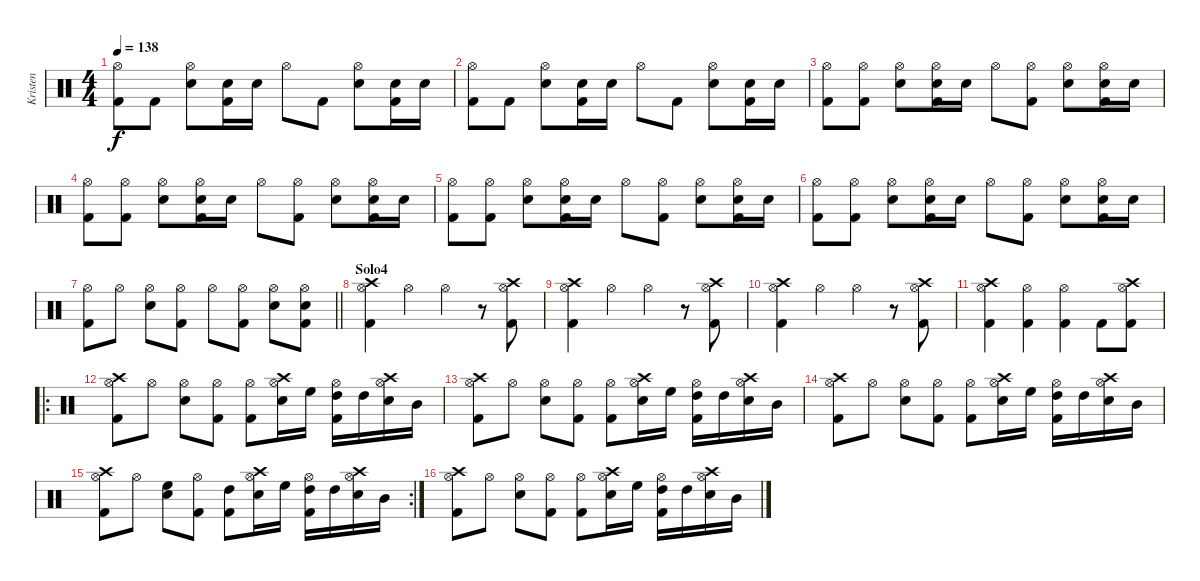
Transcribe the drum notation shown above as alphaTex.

\track ("Kristen" "Kristen") {instrument percussion}
\staff {score}
\articulation defaults
\ts (4 4)
\tempo 138
\clef neutral
\ks c
("Hi-Hat (open)" "Kick (hit) 2").8{dy f} "Kick (hit) 2".8 ("Hi-Hat (open)" "Snare (hit) 2").8 ("Snare (hit) 2" "Kick (hit) 2").16 "Snare (hit) 2".16 "Hi-Hat (open)".8 "Kick (hit) 2".8 ("Hi-Hat (open)" "Snare (hit) 2").8 ("Snare (hit) 2" "Kick (hit) 2").16 "Snare (hit) 2".16 |
("Hi-Hat (open)" "Kick (hit) 2").8 "Kick (hit) 2".8 ("Hi-Hat (open)" "Snare (hit) 2").8 ("Snare (hit) 2" "Kick (hit) 2").16 "Snare (hit) 2".16 "Hi-Hat (open)".8 "Kick (hit) 2".8 ("Hi-Hat (open)" "Snare (hit) 2").8 ("Snare (hit) 2" "Kick (hit) 2").16 "Snare (hit) 2".16 |
("Hi-Hat (open)" "Kick (hit) 2").8 ("Hi-Hat (open)" "Kick (hit) 2").8 ("Hi-Hat (open)" "Snare (hit) 2").8 ("Hi-Hat (open)" "Snare (hit) 2" "Kick (hit) 2").16 "Snare (hit) 2".16 "Hi-Hat (open)".8 ("Hi-Hat (open)" "Kick (hit) 2").8 ("Hi-Hat (open)" "Snare (hit) 2").8 ("Hi-Hat (open)" "Snare (hit) 2" "Kick (hit) 2").16 "Snare (hit) 2".16 |
("Hi-Hat (open)" "Kick (hit) 2").8 ("Hi-Hat (open)" "Kick (hit) 2").8 ("Hi-Hat (open)" "Snare (hit) 2").8 ("Hi-Hat (open)" "Snare (hit) 2" "Kick (hit) 2").16 "Snare (hit) 2".16 "Hi-Hat (open)".8 ("Hi-Hat (open)" "Kick (hit) 2").8 ("Hi-Hat (open)" "Snare (hit) 2").8 ("Hi-Hat (open)" "Snare (hit) 2" "Kick (hit) 2").16 "Snare (hit) 2".16 |
("Hi-Hat (open)" "Kick (hit) 2").8 ("Hi-Hat (open)" "Kick (hit) 2").8 ("Hi-Hat (open)" "Snare (hit) 2").8 ("Hi-Hat (open)" "Snare (hit) 2" "Kick (hit) 2").16 "Snare (hit) 2".16 "Hi-Hat (open)".8 ("Hi-Hat (open)" "Kick (hit) 2").8 ("Hi-Hat (open)" "Snare (hit) 2").8 ("Hi-Hat (open)" "Snare (hit) 2" "Kick (hit) 2").16 "Snare (hit) 2".16 |
("Hi-Hat (open)" "Kick (hit) 2").8 ("Hi-Hat (open)" "Kick (hit) 2").8 ("Hi-Hat (open)" "Snare (hit) 2").8 ("Hi-Hat (open)" "Snare (hit) 2" "Kick (hit) 2").16 "Snare (hit) 2".16 "Hi-Hat (open)".8 ("Hi-Hat (open)" "Kick (hit) 2").8 ("Hi-Hat (open)" "Snare (hit) 2").8 ("Hi-Hat (open)" "Snare (hit) 2" "Kick (hit) 2").16 "Snare (hit) 2".16 |
\barLineRight lightlight
("Hi-Hat (open)" "Kick (hit) 2").8 "Hi-Hat (open)".8 ("Hi-Hat (open)" "Snare (hit) 2").8 ("Hi-Hat (open)" "Kick (hit) 2").8 "Hi-Hat (open)".8 ("Hi-Hat (open)" "Kick (hit) 2").8 ("Hi-Hat (open)" "Snare (hit) 2").8 ("Hi-Hat (open)" "Snare (hit) 2" "Kick (hit) 2").8 |
\section ("" "Solo4")
("Crash high (hit)" "Hi-Hat (open)" "Kick (hit) 2").4 "Hi-Hat (open)".4 "Hi-Hat (open)".4 r.8 ("Crash high (hit)" "Hi-Hat (open)" "Kick (hit) 2").8 |
("Crash high (hit)" "Hi-Hat (open)" "Kick (hit) 2").4 "Hi-Hat (open)".4 "Hi-Hat (open)".4 r.8 ("Crash high (hit)" "Hi-Hat (open)" "Kick (hit) 2").8 |
("Crash high (hit)" "Hi-Hat (open)" "Kick (hit) 2").4 "Hi-Hat (open)".4 "Hi-Hat (open)".4 r.8 ("Crash high (hit)" "Hi-Hat (open)" "Kick (hit) 2").8 |
("Crash high (hit)" "Hi-Hat (open)" "Kick (hit) 2").4 ("Hi-Hat (open)" "Kick (hit) 2").4 ("Hi-Hat (open)" "Kick (hit) 2").4 "Kick (hit) 2".8 ("Crash high (hit)" "Hi-Hat (open)" "Kick (hit) 2").8 |
\ro
("Crash high (hit)" "Hi-Hat (open)" "Kick (hit) 2").8 "Hi-Hat (open)".8 ("Hi-Hat (open)" "Snare (hit) 2").8 ("Hi-Hat (open)" "Kick (hit) 2").8 ("Hi-Hat (open)" "Kick (hit) 2").8 ("Crash high (hit)" "Hi-Hat (open)" "Snare (hit) 2").16 "High Floor Tom (hit)".16 ("High Tom (hit)" "Hi-Hat (open)" "Kick (hit) 2").16 "High Tom (hit)".16 ("Crash high (hit)" "Hi-Hat (open)" "Snare (hit) 2").16 "Mid Tom (hit)".16 |
("Crash high (hit)" "Hi-Hat (open)" "Kick (hit) 2").8 "Hi-Hat (open)".8 ("Hi-Hat (open)" "Snare (hit) 2").8 ("Hi-Hat (open)" "Kick (hit) 2").8 ("Hi-Hat (open)" "Kick (hit) 2").8 ("Crash high (hit)" "Hi-Hat (open)" "Snare (hit) 2").16 "High Floor Tom (hit)".16 ("High Tom (hit)" "Hi-Hat (open)" "Kick (hit) 2").16 "High Tom (hit)".16 ("Crash high (hit)" "Hi-Hat (open)" "Snare (hit) 2").16 "Mid Tom (hit)".16 |
("Crash high (hit)" "Hi-Hat (open)" "Kick (hit) 2").8 "Hi-Hat (open)".8 ("Hi-Hat (open)" "Snare (hit) 2").8 ("Hi-Hat (open)" "Kick (hit) 2").8 ("Hi-Hat (open)" "Kick (hit) 2").8 ("Crash high (hit)" "Hi-Hat (open)" "Snare (hit) 2").16 "High Floor Tom (hit)".16 ("High Tom (hit)" "Hi-Hat (open)" "Kick (hit) 2").16 "High Tom (hit)".16 ("Crash high (hit)" "Hi-Hat (open)" "Snare (hit) 2").16 "Mid Tom (hit)".16 |
\rc 2
("Crash high (hit)" "Hi-Hat (open)" "Kick (hit) 2").8 "Hi-Hat (open)".8 ("High Floor Tom (hit)" "Snare (hit) 2").8 ("Hi-Hat (open)" "Kick (hit) 2").8 ("High Tom (hit)" "Kick (hit) 2").8 ("Crash high (hit)" "Hi-Hat (open)" "Snare (hit) 2").16 "High Floor Tom (hit)".16 ("High Tom (hit)" "Hi-Hat (open)" "Kick (hit) 2").16 "High Tom (hit)".16 ("Crash high (hit)" "Hi-Hat (open)" "Snare (hit) 2").16 "Mid Tom (hit)".16 |
("Crash high (hit)" "Hi-Hat (open)" "Kick (hit) 2").8 "Hi-Hat (open)".8 ("Hi-Hat (open)" "Snare (hit) 2").8 ("Hi-Hat (open)" "Kick (hit) 2").8 ("Hi-Hat (open)" "Kick (hit) 2").8 ("Crash high (hit)" "Hi-Hat (open)" "Snare (hit) 2").16 "High Floor Tom (hit)".16 ("High Tom (hit)" "Hi-Hat (open)" "Kick (hit) 2").16 "High Tom (hit)".16 ("Crash high (hit)" "Hi-Hat (open)" "Snare (hit) 2").16 "Mid Tom (hit)".16
